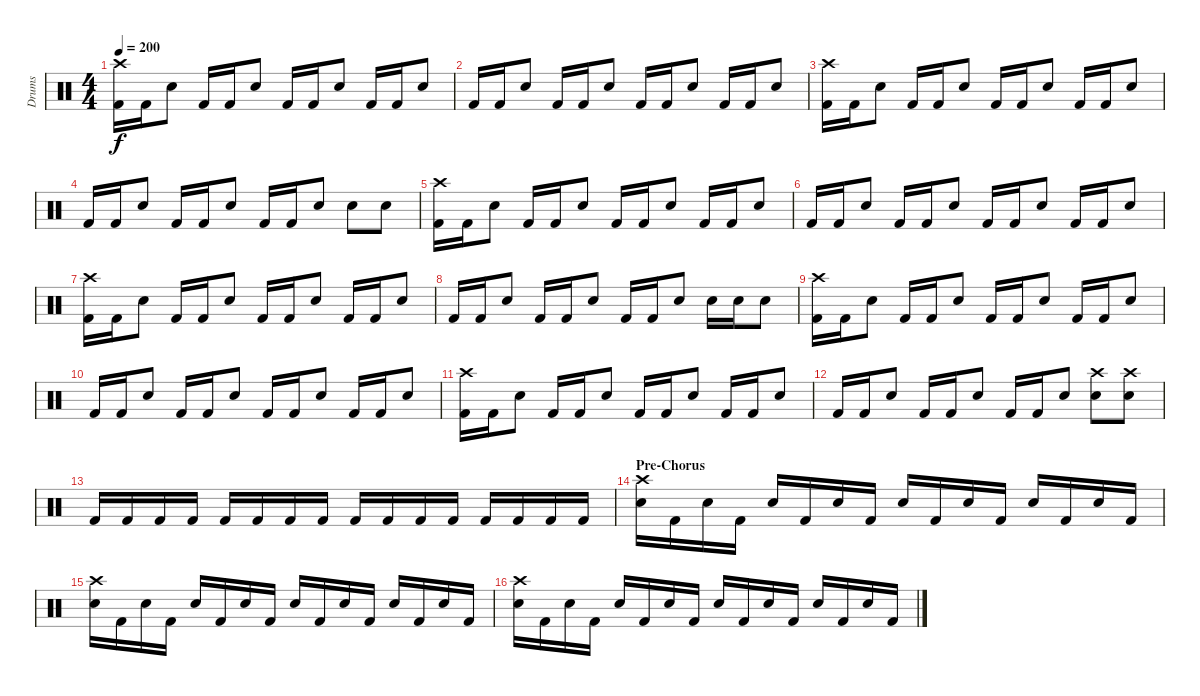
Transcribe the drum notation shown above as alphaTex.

\track ("Drums" "Drums") {instrument percussion}
\staff {score}
\articulation defaults
\ts (4 4)
\tempo 200
\clef neutral
\ks c
("Crash high (hit)" "Kick (hit) 2").16{dy f} "Kick (hit) 2".16 "Snare (hit) 2".8 "Kick (hit) 2".16 "Kick (hit) 2".16 "Snare (hit) 2".8 "Kick (hit) 2".16 "Kick (hit) 2".16 "Snare (hit) 2".8 "Kick (hit) 2".16 "Kick (hit) 2".16 "Snare (hit) 2".8 |
"Kick (hit) 2".16 "Kick (hit) 2".16 "Snare (hit) 2".8 "Kick (hit) 2".16 "Kick (hit) 2".16 "Snare (hit) 2".8 "Kick (hit) 2".16 "Kick (hit) 2".16 "Snare (hit) 2".8 "Kick (hit) 2".16 "Kick (hit) 2".16 "Snare (hit) 2".8 |
("Crash high (hit)" "Kick (hit) 2").16 "Kick (hit) 2".16 "Snare (hit) 2".8 "Kick (hit) 2".16 "Kick (hit) 2".16 "Snare (hit) 2".8 "Kick (hit) 2".16 "Kick (hit) 2".16 "Snare (hit) 2".8 "Kick (hit) 2".16 "Kick (hit) 2".16 "Snare (hit) 2".8 |
"Kick (hit) 2".16 "Kick (hit) 2".16 "Snare (hit) 2".8 "Kick (hit) 2".16 "Kick (hit) 2".16 "Snare (hit) 2".8 "Kick (hit) 2".16 "Kick (hit) 2".16 "Snare (hit) 2".8 "Snare (hit) 2".8 "Snare (hit) 2".8 |
("Crash high (hit)" "Kick (hit) 2").16 "Kick (hit) 2".16 "Snare (hit) 2".8 "Kick (hit) 2".16 "Kick (hit) 2".16 "Snare (hit) 2".8 "Kick (hit) 2".16 "Kick (hit) 2".16 "Snare (hit) 2".8 "Kick (hit) 2".16 "Kick (hit) 2".16 "Snare (hit) 2".8 |
"Kick (hit) 2".16 "Kick (hit) 2".16 "Snare (hit) 2".8 "Kick (hit) 2".16 "Kick (hit) 2".16 "Snare (hit) 2".8 "Kick (hit) 2".16 "Kick (hit) 2".16 "Snare (hit) 2".8 "Kick (hit) 2".16 "Kick (hit) 2".16 "Snare (hit) 2".8 |
("Crash high (hit)" "Kick (hit) 2").16 "Kick (hit) 2".16 "Snare (hit) 2".8 "Kick (hit) 2".16 "Kick (hit) 2".16 "Snare (hit) 2".8 "Kick (hit) 2".16 "Kick (hit) 2".16 "Snare (hit) 2".8 "Kick (hit) 2".16 "Kick (hit) 2".16 "Snare (hit) 2".8 |
"Kick (hit) 2".16 "Kick (hit) 2".16 "Snare (hit) 2".8 "Kick (hit) 2".16 "Kick (hit) 2".16 "Snare (hit) 2".8 "Kick (hit) 2".16 "Kick (hit) 2".16 "Snare (hit) 2".8 "Snare (hit) 2".16 "Snare (hit) 2".16 "Snare (hit) 2".8 |
("Crash high (hit)" "Kick (hit) 2").16 "Kick (hit) 2".16 "Snare (hit) 2".8 "Kick (hit) 2".16 "Kick (hit) 2".16 "Snare (hit) 2".8 "Kick (hit) 2".16 "Kick (hit) 2".16 "Snare (hit) 2".8 "Kick (hit) 2".16 "Kick (hit) 2".16 "Snare (hit) 2".8 |
"Kick (hit) 2".16 "Kick (hit) 2".16 "Snare (hit) 2".8 "Kick (hit) 2".16 "Kick (hit) 2".16 "Snare (hit) 2".8 "Kick (hit) 2".16 "Kick (hit) 2".16 "Snare (hit) 2".8 "Kick (hit) 2".16 "Kick (hit) 2".16 "Snare (hit) 2".8 |
("Crash high (hit)" "Kick (hit) 2").16 "Kick (hit) 2".16 "Snare (hit) 2".8 "Kick (hit) 2".16 "Kick (hit) 2".16 "Snare (hit) 2".8 "Kick (hit) 2".16 "Kick (hit) 2".16 "Snare (hit) 2".8 "Kick (hit) 2".16 "Kick (hit) 2".16 "Snare (hit) 2".8 |
"Kick (hit) 2".16 "Kick (hit) 2".16 "Snare (hit) 2".8 "Kick (hit) 2".16 "Kick (hit) 2".16 "Snare (hit) 2".8 "Kick (hit) 2".16 "Kick (hit) 2".16 "Snare (hit) 2".8 ("Crash high (hit)" "Snare (hit) 2").8 ("Crash high (hit)" "Snare (hit) 2").8 |
"Kick (hit) 2".16 "Kick (hit) 2".16 "Kick (hit) 2".16 "Kick (hit) 2".16 "Kick (hit) 2".16 "Kick (hit) 2".16 "Kick (hit) 2".16 "Kick (hit) 2".16 "Kick (hit) 2".16 "Kick (hit) 2".16 "Kick (hit) 2".16 "Kick (hit) 2".16 "Kick (hit) 2".16 "Kick (hit) 2".16 "Kick (hit) 2".16 "Kick (hit) 2".16 |
\section ("" "Pre-Chorus")
("Crash high (hit)" "Snare (hit) 2").16 "Kick (hit) 2".16 "Snare (hit) 2".16 "Kick (hit) 2".16 "Snare (hit) 2".16 "Kick (hit) 2".16 "Snare (hit) 2".16 "Kick (hit) 2".16 "Snare (hit) 2".16 "Kick (hit) 2".16 "Snare (hit) 2".16 "Kick (hit) 2".16 "Snare (hit) 2".16 "Kick (hit) 2".16 "Snare (hit) 2".16 "Kick (hit) 2".16 |
("Crash high (hit)" "Snare (hit) 2").16 "Kick (hit) 2".16 "Snare (hit) 2".16 "Kick (hit) 2".16 "Snare (hit) 2".16 "Kick (hit) 2".16 "Snare (hit) 2".16 "Kick (hit) 2".16 "Snare (hit) 2".16 "Kick (hit) 2".16 "Snare (hit) 2".16 "Kick (hit) 2".16 "Snare (hit) 2".16 "Kick (hit) 2".16 "Snare (hit) 2".16 "Kick (hit) 2".16 |
("Crash high (hit)" "Snare (hit) 2").16 "Kick (hit) 2".16 "Snare (hit) 2".16 "Kick (hit) 2".16 "Snare (hit) 2".16 "Kick (hit) 2".16 "Snare (hit) 2".16 "Kick (hit) 2".16 "Snare (hit) 2".16 "Kick (hit) 2".16 "Snare (hit) 2".16 "Kick (hit) 2".16 "Snare (hit) 2".16 "Kick (hit) 2".16 "Snare (hit) 2".16 "Kick (hit) 2".16
